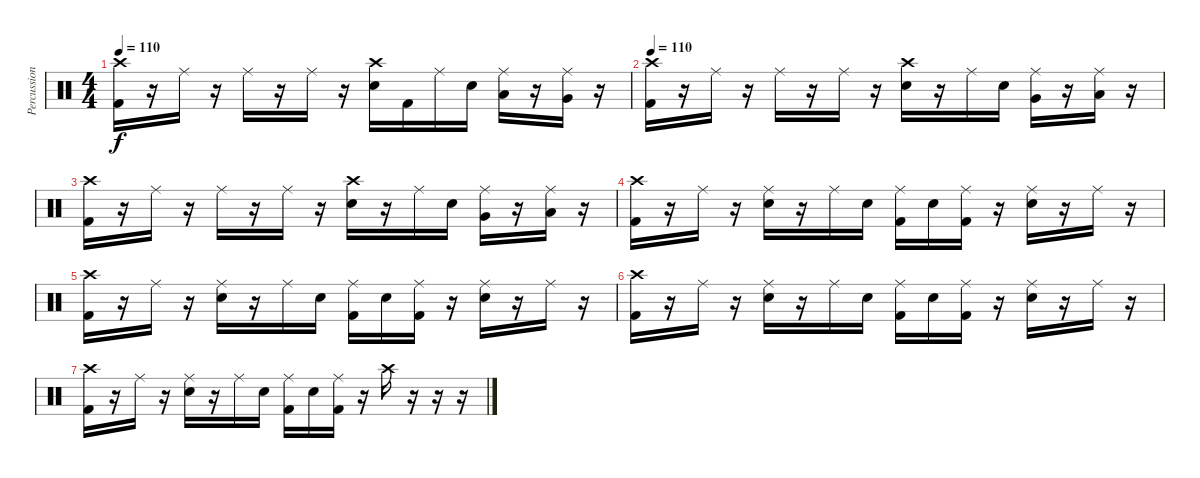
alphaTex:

\track ("Percussion" "Percussion") {instrument percussion}
\staff {score}
\articulation defaults
\ts (4 4)
\tempo 110
\clef neutral
\ks c
("Crash high (hit)" "Kick (hit) 2").16{dy f} r.16 "Ride (middle)".16 r.16 "Ride (middle)".16 r.16 "Ride (middle)".16 r.16 ("Crash high (hit)" "Electric Snare (hit)").16 "Kick (hit) 2".16 "Ride (middle)".16 "Electric Snare (hit)".16 ("Ride (middle)" "Low Tom (hit)").16 r.16 ("Ride (middle)" "Very Low Tom (hit)").16 r.16 |
\tempo 110
("Crash high (hit)" "Kick (hit) 2").16 r.16 "Ride (middle)".16 r.16 "Ride (middle)".16 r.16 "Ride (middle)".16 r.16 ("Crash high (hit)" "Electric Snare (hit)").16 r.16 "Ride (middle)".16 "Electric Snare (hit)".16 ("Ride (middle)" "Very Low Tom (hit)").16 r.16 ("Ride (middle)" "Low Floor Tom (hit)").16 r.16 |
("Crash high (hit)" "Kick (hit) 2").16 r.16 "Ride (middle)".16 r.16 "Ride (middle)".16 r.16 "Ride (middle)".16 r.16 ("Crash high (hit)" "Electric Snare (hit)").16 r.16 "Ride (middle)".16 "Electric Snare (hit)".16 ("Ride (middle)" "Very Low Tom (hit)").16 r.16 ("Ride (middle)" "Low Floor Tom (hit)").16 r.16 |
("Crash high (hit)" "Kick (hit) 2").16 r.16 "Ride (middle)".16 r.16 ("Ride (middle)" "Electric Snare (hit)").16 r.16 "Ride (middle)".16 "Electric Snare (hit)".16 ("Ride (middle)" "Kick (hit) 2").16 "Electric Snare (hit)".16 ("Ride (middle)" "Kick (hit) 2").16 r.16 ("Ride (middle)" "Electric Snare (hit)").16 r.16 "Ride (middle)".16 r.16 |
("Crash high (hit)" "Kick (hit) 2").16 r.16 "Ride (middle)".16 r.16 ("Ride (middle)" "Electric Snare (hit)").16 r.16 "Ride (middle)".16 "Electric Snare (hit)".16 ("Ride (middle)" "Kick (hit) 2").16 "Electric Snare (hit)".16 ("Ride (middle)" "Kick (hit) 2").16 r.16 ("Ride (middle)" "Electric Snare (hit)").16 r.16 "Ride (middle)".16 r.16 |
("Crash high (hit)" "Kick (hit) 2").16 r.16 "Ride (middle)".16 r.16 ("Ride (middle)" "Electric Snare (hit)").16 r.16 "Ride (middle)".16 "Electric Snare (hit)".16 ("Ride (middle)" "Kick (hit) 2").16 "Electric Snare (hit)".16 ("Ride (middle)" "Kick (hit) 2").16 r.16 ("Ride (middle)" "Electric Snare (hit)").16 r.16 "Ride (middle)".16 r.16 |
("Crash high (hit)" "Kick (hit) 2").16 r.16 "Ride (middle)".16 r.16 ("Ride (middle)" "Electric Snare (hit)").16 r.16 "Ride (middle)".16 "Electric Snare (hit)".16 ("Ride (middle)" "Kick (hit) 2").16 "Electric Snare (hit)".16 ("Ride (middle)" "Kick (hit) 2").16 r.16 "Crash high (hit)".16 r.16 r.16 r.16
